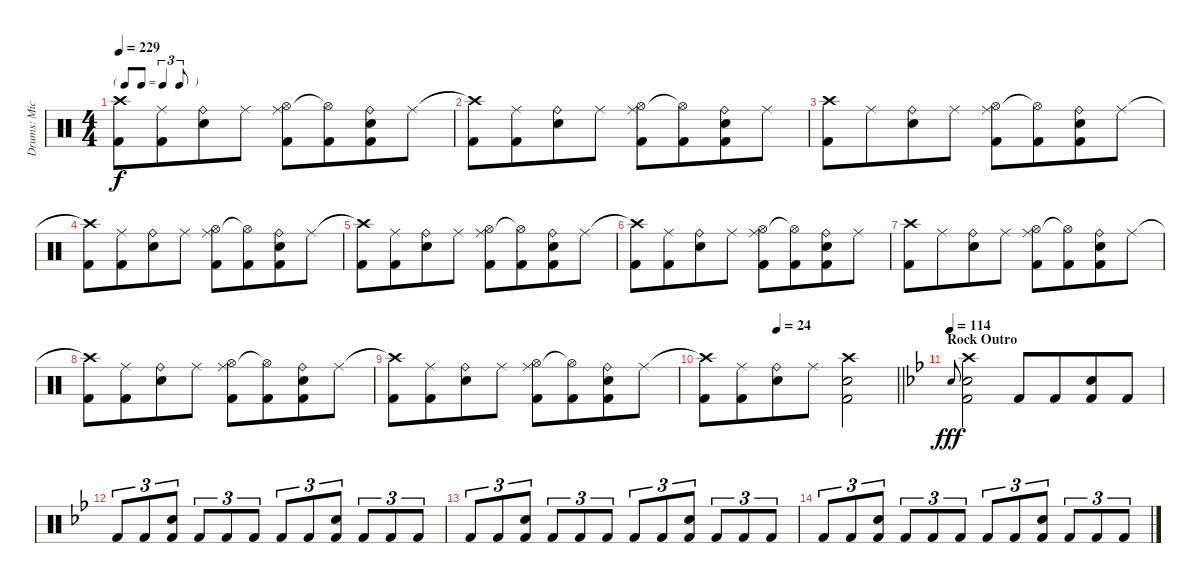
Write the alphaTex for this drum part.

\track ("Drums: Mick" "Drums: Mic") {instrument percussion}
\staff {score}
\articulation defaults
\ts (4 4)
\tf triplet8th
\tempo 229
\clef neutral
\ks c
("Crash high (hit)"{t} "Kick (hit) 2").8{dy f} ("Ride (middle)" "Kick (hit) 2").8{beam merge} ("Ride (bell)" "Snare (hit) 2").8 "Ride (middle)".8 ("Ride (middle)" "Hi-Hat (open)" "Kick (hit) 2").8 ("Hi-Hat (open)"{t} "Kick (hit) 2").8{beam merge} ("Ride (bell)" "Snare (hit) 2" "Kick (hit) 2").8 "Ride (middle)".8 |
("Crash high (hit)"{t} "Kick (hit) 2").8 ("Ride (middle)" "Kick (hit) 2").8{beam merge} ("Ride (bell)" "Snare (hit) 2").8 "Ride (middle)".8 ("Ride (middle)" "Hi-Hat (open)" "Kick (hit) 2").8 ("Hi-Hat (open)"{t} "Kick (hit) 2").8{beam merge} ("Ride (bell)" "Snare (hit) 2" "Kick (hit) 2").8 "Ride (middle)".8 |
("Crash high (hit)" "Kick (hit) 2").8 "Ride (middle)".8{beam merge} ("Ride (bell)" "Snare (hit) 2").8 "Ride (middle)".8 ("Ride (middle)" "Hi-Hat (open)" "Kick (hit) 2").8 ("Hi-Hat (open)"{t} "Kick (hit) 2").8{beam merge} ("Ride (bell)" "Snare (hit) 2" "Kick (hit) 2").8 "Ride (middle)".8 |
("Crash high (hit)"{t} "Kick (hit) 2").8 ("Ride (middle)" "Kick (hit) 2").8{beam merge} ("Ride (bell)" "Snare (hit) 2").8 "Ride (middle)".8 ("Ride (middle)" "Hi-Hat (open)" "Kick (hit) 2").8 ("Hi-Hat (open)"{t} "Kick (hit) 2").8{beam merge} ("Ride (bell)" "Snare (hit) 2" "Kick (hit) 2").8 "Ride (middle)".8 |
("Crash high (hit)"{t} "Kick (hit) 2").8 ("Ride (middle)" "Kick (hit) 2").8{beam merge} ("Ride (bell)" "Snare (hit) 2").8 "Ride (middle)".8 ("Ride (middle)" "Hi-Hat (open)" "Kick (hit) 2").8 ("Hi-Hat (open)"{t} "Kick (hit) 2").8{beam merge} ("Ride (bell)" "Snare (hit) 2" "Kick (hit) 2").8 "Ride (middle)".8 |
("Crash high (hit)"{t} "Kick (hit) 2").8 ("Ride (middle)" "Kick (hit) 2").8{beam merge} ("Ride (bell)" "Snare (hit) 2").8 "Ride (middle)".8 ("Ride (middle)" "Hi-Hat (open)" "Kick (hit) 2").8 ("Hi-Hat (open)"{t} "Kick (hit) 2").8{beam merge} ("Ride (bell)" "Snare (hit) 2" "Kick (hit) 2").8 "Ride (middle)".8 |
("Crash high (hit)" "Kick (hit) 2").8 "Ride (middle)".8{beam merge} ("Ride (bell)" "Snare (hit) 2").8 "Ride (middle)".8 ("Ride (middle)" "Hi-Hat (open)" "Kick (hit) 2").8 ("Hi-Hat (open)"{t} "Kick (hit) 2").8{beam merge} ("Ride (bell)" "Snare (hit) 2" "Kick (hit) 2").8 "Ride (middle)".8 |
("Crash high (hit)"{t} "Kick (hit) 2").8 ("Ride (middle)" "Kick (hit) 2").8{beam merge} ("Ride (bell)" "Snare (hit) 2").8 "Ride (middle)".8 ("Ride (middle)" "Hi-Hat (open)" "Kick (hit) 2").8 ("Hi-Hat (open)"{t} "Kick (hit) 2").8{beam merge} ("Ride (bell)" "Snare (hit) 2" "Kick (hit) 2").8 "Ride (middle)".8 |
("Crash high (hit)"{t} "Kick (hit) 2").8 ("Ride (middle)" "Kick (hit) 2").8{beam merge} ("Ride (bell)" "Snare (hit) 2").8 "Ride (middle)".8 ("Ride (middle)" "Hi-Hat (open)" "Kick (hit) 2").8 ("Hi-Hat (open)"{t} "Kick (hit) 2").8{beam merge} ("Ride (bell)" "Snare (hit) 2" "Kick (hit) 2").8 "Ride (middle)".8 |
\tempo (24 0.375)
\barLineRight lightlight
("Crash high (hit)"{t} "Kick (hit) 2").8 ("Ride (middle)" "Kick (hit) 2").8{beam merge} ("Ride (bell)" "Snare (hit) 2").8 "Ride (middle)".8 ("Crash high (hit)" "Snare (hit) 2" "Kick (hit) 2").2 |
\section ("" "Rock Outro")
\tempo 114
\ks bb "Electric Snare (hit)".8{gr onbeat dy fff}
("Crash high (hit)" "Snare (hit) 2" "Kick (hit) 2").2 "Kick (hit) 2".8 "Kick (hit) 2".8{beam merge} ("Snare (hit) 2" "Kick (hit) 2").8 "Kick (hit) 2".8 |
"Kick (hit) 2".8{tu (3 2)} "Kick (hit) 2".8{tu (3 2) beam merge} ("Snare (hit) 2" "Kick (hit) 2").8{tu (3 2)} "Kick (hit) 2".8{tu (3 2)} "Kick (hit) 2".8{tu (3 2)} "Kick (hit) 2".8{tu (3 2)} "Kick (hit) 2".8{tu (3 2)} "Kick (hit) 2".8{tu (3 2) beam merge} ("Snare (hit) 2" "Kick (hit) 2").8{tu (3 2)} "Kick (hit) 2".8{tu (3 2)} "Kick (hit) 2".8{tu (3 2)} "Kick (hit) 2".8{tu (3 2)} |
"Kick (hit) 2".8{tu (3 2)} "Kick (hit) 2".8{tu (3 2) beam merge} ("Snare (hit) 2" "Kick (hit) 2").8{tu (3 2)} "Kick (hit) 2".8{tu (3 2)} "Kick (hit) 2".8{tu (3 2)} "Kick (hit) 2".8{tu (3 2)} "Kick (hit) 2".8{tu (3 2)} "Kick (hit) 2".8{tu (3 2) beam merge} ("Snare (hit) 2" "Kick (hit) 2").8{tu (3 2)} "Kick (hit) 2".8{tu (3 2)} "Kick (hit) 2".8{tu (3 2)} "Kick (hit) 2".8{tu (3 2)} |
"Kick (hit) 2".8{tu (3 2)} "Kick (hit) 2".8{tu (3 2) beam merge} ("Snare (hit) 2" "Kick (hit) 2").8{tu (3 2)} "Kick (hit) 2".8{tu (3 2)} "Kick (hit) 2".8{tu (3 2)} "Kick (hit) 2".8{tu (3 2)} "Kick (hit) 2".8{tu (3 2)} "Kick (hit) 2".8{tu (3 2) beam merge} ("Snare (hit) 2" "Kick (hit) 2").8{tu (3 2)} "Kick (hit) 2".8{tu (3 2)} "Kick (hit) 2".8{tu (3 2)} "Kick (hit) 2".8{tu (3 2)}
